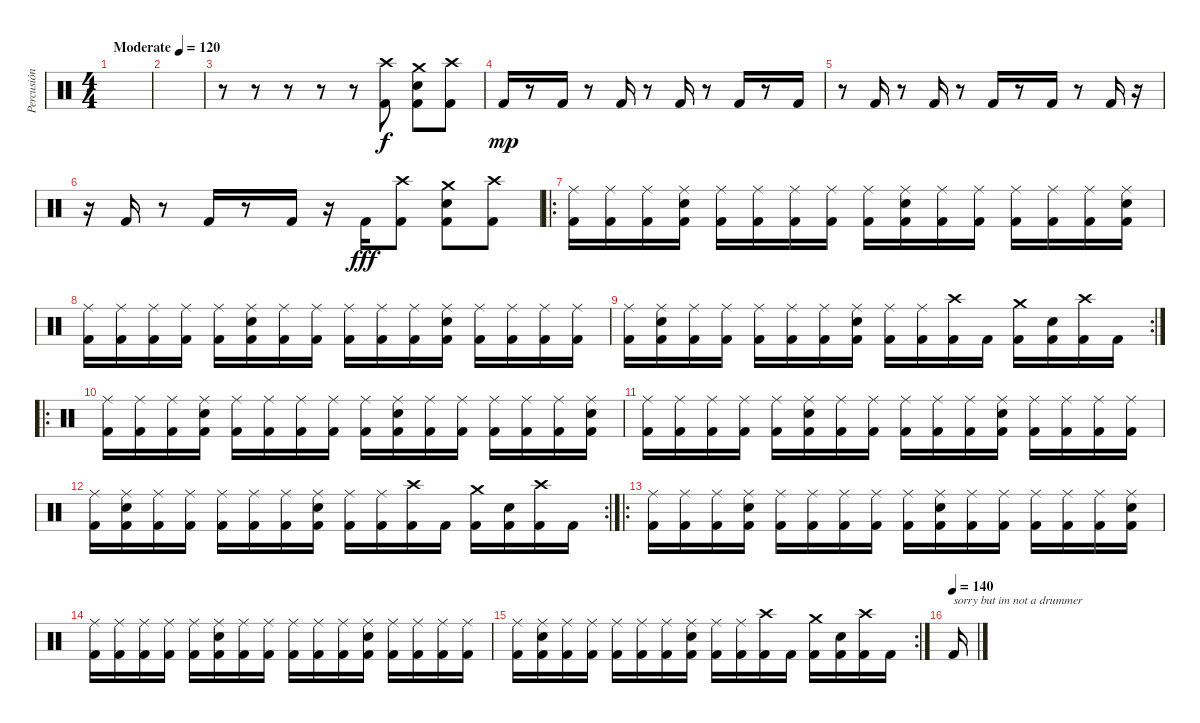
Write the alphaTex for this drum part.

\track ("Percusión" "Percusión") {instrument percussion}
\staff {score}
\articulation defaults
\ts (4 4)
\tempo (120 "Moderate")
\clef neutral
\ks c
|
|
r.8 r.8 r.8 r.8 r.8 ("Crash high (hit)" "Kick (hit) 2").8 ("Crash medium (hit)" "Snare (hit) 2" "Kick (hit) 2").8 ("Crash high (hit)" "Kick (hit) 2").8 |
"Kick (hit) 2".16{dy mp} r.8 "Kick (hit) 2".16 r.8 "Kick (hit) 2".16 r.8 "Kick (hit) 2".16 r.8 "Kick (hit) 2".16 r.8 "Kick (hit) 2".16 |
r.8 "Kick (hit) 2".16 r.8 "Kick (hit) 2".16 r.8 "Kick (hit) 2".16 r.8 "Kick (hit) 2".16 r.8 "Kick (hit) 2".16 r.16 |
r.16 "Kick (hit) 2".16 r.8 "Kick (hit) 2".16 r.8 "Kick (hit) 2".16 r.16 "Kick (hit) 2".16{dy fff} ("Crash high (hit)" "Kick (hit) 2").8 ("Crash medium (hit)" "Snare (hit) 2" "Kick (hit) 2").8 ("Crash high (hit)" "Kick (hit) 2").8 |
\ro
("Ride (middle)" "Kick (hit) 2").16 ("Ride (middle)" "Kick (hit) 2").16 ("Ride (middle)" "Kick (hit) 2").16 ("Ride (middle)" "Snare (hit) 2" "Kick (hit) 2").16 ("Ride (middle)" "Kick (hit) 2").16 ("Ride (middle)" "Kick (hit) 2").16 ("Ride (middle)" "Kick (hit) 2").16 ("Ride (middle)" "Kick (hit) 2").16 ("Ride (middle)" "Kick (hit) 2").16 ("Ride (middle)" "Snare (hit) 2" "Kick (hit) 2").16 ("Ride (middle)" "Kick (hit) 2").16 ("Ride (middle)" "Kick (hit) 2").16 ("Ride (middle)" "Kick (hit) 2").16 ("Ride (middle)" "Kick (hit) 2").16 ("Ride (middle)" "Kick (hit) 2").16 ("Ride (middle)" "Snare (hit) 2" "Kick (hit) 2").16 |
("Ride (middle)" "Kick (hit) 2").16 ("Ride (middle)" "Kick (hit) 2").16 ("Ride (middle)" "Kick (hit) 2").16 ("Ride (middle)" "Kick (hit) 2").16 ("Ride (middle)" "Kick (hit) 2").16 ("Ride (middle)" "Snare (hit) 2" "Kick (hit) 2").16 ("Ride (middle)" "Kick (hit) 2").16 ("Ride (middle)" "Kick (hit) 2").16 ("Ride (middle)" "Kick (hit) 2").16 ("Ride (middle)" "Kick (hit) 2").16 ("Ride (middle)" "Kick (hit) 2").16 ("Ride (middle)" "Snare (hit) 2" "Kick (hit) 2").16 ("Ride (middle)" "Kick (hit) 2").16 ("Ride (middle)" "Kick (hit) 2").16 ("Ride (middle)" "Kick (hit) 2").16 ("Ride (middle)" "Kick (hit) 2").16 |
\rc 2
("Ride (middle)" "Kick (hit) 2").16 ("Ride (middle)" "Snare (hit) 2" "Kick (hit) 2").16 ("Ride (middle)" "Kick (hit) 2").16 ("Ride (middle)" "Kick (hit) 2").16 ("Ride (middle)" "Kick (hit) 2").16 ("Ride (middle)" "Kick (hit) 2").16 ("Ride (middle)" "Kick (hit) 2").16 ("Ride (middle)" "Snare (hit) 2" "Kick (hit) 2").16 ("Ride (middle)" "Kick (hit) 2").16 ("Ride (middle)" "Kick (hit) 2").16 ("Crash high (hit)" "Kick (hit) 2").16 "Kick (hit) 2".16 ("Crash medium (hit)" "Kick (hit) 2").16 ("Snare (hit) 2" "Kick (hit) 2").16 ("Crash high (hit)" "Kick (hit) 2").16 "Kick (hit) 2".16 |
\ro
("Ride (middle)" "Kick (hit) 2").16 ("Ride (middle)" "Kick (hit) 2").16 ("Ride (middle)" "Kick (hit) 2").16 ("Ride (middle)" "Snare (hit) 2" "Kick (hit) 2").16 ("Ride (middle)" "Kick (hit) 2").16 ("Ride (middle)" "Kick (hit) 2").16 ("Ride (middle)" "Kick (hit) 2").16 ("Ride (middle)" "Kick (hit) 2").16 ("Ride (middle)" "Kick (hit) 2").16 ("Ride (middle)" "Snare (hit) 2" "Kick (hit) 2").16 ("Ride (middle)" "Kick (hit) 2").16 ("Ride (middle)" "Kick (hit) 2").16 ("Ride (middle)" "Kick (hit) 2").16 ("Ride (middle)" "Kick (hit) 2").16 ("Ride (middle)" "Kick (hit) 2").16 ("Ride (middle)" "Snare (hit) 2" "Kick (hit) 2").16 |
("Ride (middle)" "Kick (hit) 2").16 ("Ride (middle)" "Kick (hit) 2").16 ("Ride (middle)" "Kick (hit) 2").16 ("Ride (middle)" "Kick (hit) 2").16 ("Ride (middle)" "Kick (hit) 2").16 ("Ride (middle)" "Snare (hit) 2" "Kick (hit) 2").16 ("Ride (middle)" "Kick (hit) 2").16 ("Ride (middle)" "Kick (hit) 2").16 ("Ride (middle)" "Kick (hit) 2").16 ("Ride (middle)" "Kick (hit) 2").16 ("Ride (middle)" "Kick (hit) 2").16 ("Ride (middle)" "Snare (hit) 2" "Kick (hit) 2").16 ("Ride (middle)" "Kick (hit) 2").16 ("Ride (middle)" "Kick (hit) 2").16 ("Ride (middle)" "Kick (hit) 2").16 ("Ride (middle)" "Kick (hit) 2").16 |
\rc 2
("Ride (middle)" "Kick (hit) 2").16 ("Ride (middle)" "Snare (hit) 2" "Kick (hit) 2").16 ("Ride (middle)" "Kick (hit) 2").16 ("Ride (middle)" "Kick (hit) 2").16 ("Ride (middle)" "Kick (hit) 2").16 ("Ride (middle)" "Kick (hit) 2").16 ("Ride (middle)" "Kick (hit) 2").16 ("Ride (middle)" "Snare (hit) 2" "Kick (hit) 2").16 ("Ride (middle)" "Kick (hit) 2").16 ("Ride (middle)" "Kick (hit) 2").16 ("Crash high (hit)" "Kick (hit) 2").16 "Kick (hit) 2".16 ("Crash medium (hit)" "Kick (hit) 2").16 ("Snare (hit) 2" "Kick (hit) 2").16 ("Crash high (hit)" "Kick (hit) 2").16 "Kick (hit) 2".16 |
\ro
("Ride (middle)" "Kick (hit) 2").16 ("Ride (middle)" "Kick (hit) 2").16 ("Ride (middle)" "Kick (hit) 2").16 ("Ride (middle)" "Snare (hit) 2" "Kick (hit) 2").16 ("Ride (middle)" "Kick (hit) 2").16 ("Ride (middle)" "Kick (hit) 2").16 ("Ride (middle)" "Kick (hit) 2").16 ("Ride (middle)" "Kick (hit) 2").16 ("Ride (middle)" "Kick (hit) 2").16 ("Ride (middle)" "Snare (hit) 2" "Kick (hit) 2").16 ("Ride (middle)" "Kick (hit) 2").16 ("Ride (middle)" "Kick (hit) 2").16 ("Ride (middle)" "Kick (hit) 2").16 ("Ride (middle)" "Kick (hit) 2").16 ("Ride (middle)" "Kick (hit) 2").16 ("Ride (middle)" "Snare (hit) 2" "Kick (hit) 2").16 |
("Ride (middle)" "Kick (hit) 2").16 ("Ride (middle)" "Kick (hit) 2").16 ("Ride (middle)" "Kick (hit) 2").16 ("Ride (middle)" "Kick (hit) 2").16 ("Ride (middle)" "Kick (hit) 2").16 ("Ride (middle)" "Snare (hit) 2" "Kick (hit) 2").16 ("Ride (middle)" "Kick (hit) 2").16 ("Ride (middle)" "Kick (hit) 2").16 ("Ride (middle)" "Kick (hit) 2").16 ("Ride (middle)" "Kick (hit) 2").16 ("Ride (middle)" "Kick (hit) 2").16 ("Ride (middle)" "Snare (hit) 2" "Kick (hit) 2").16 ("Ride (middle)" "Kick (hit) 2").16 ("Ride (middle)" "Kick (hit) 2").16 ("Ride (middle)" "Kick (hit) 2").16 ("Ride (middle)" "Kick (hit) 2").16 |
\rc 2
("Ride (middle)" "Kick (hit) 2").16 ("Ride (middle)" "Snare (hit) 2" "Kick (hit) 2").16 ("Ride (middle)" "Kick (hit) 2").16 ("Ride (middle)" "Kick (hit) 2").16 ("Ride (middle)" "Kick (hit) 2").16 ("Ride (middle)" "Kick (hit) 2").16 ("Ride (middle)" "Kick (hit) 2").16 ("Ride (middle)" "Snare (hit) 2" "Kick (hit) 2").16 ("Ride (middle)" "Kick (hit) 2").16 ("Ride (middle)" "Kick (hit) 2").16 ("Crash high (hit)" "Kick (hit) 2").16 "Kick (hit) 2".16 ("Crash medium (hit)" "Kick (hit) 2").16 ("Snare (hit) 2" "Kick (hit) 2").16 ("Crash high (hit)" "Kick (hit) 2").16 "Kick (hit) 2".16 |
\tempo (140)
"Kick (hit) 2".16{txt "sorry but im not a drummer"}
